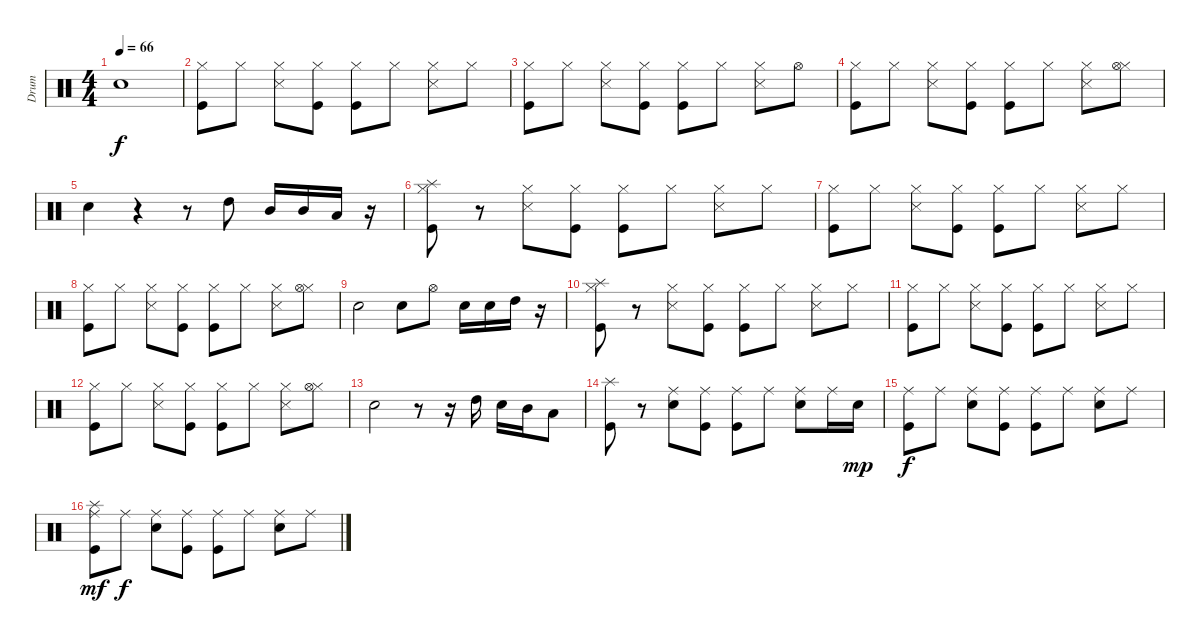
\track ("Drum" "Drum") {instrument percussion}
\staff {score}
\articulation defaults
\ts (4 4)
\tempo 66
\clef neutral
\ks c "Snare (hit) 2".1{dy f}
|
("Hi-Hat (closed)" "Kick (hit)").8 "Hi-Hat (closed)".8 ("Hi-Hat (closed)" "Snare (side stick) 3").8 ("Hi-Hat (closed)" "Kick (hit)").8 ("Hi-Hat (closed)" "Kick (hit)").8 "Hi-Hat (closed)".8 ("Hi-Hat (closed)" "Snare (side stick) 3").8 "Hi-Hat (closed)".8 |
("Hi-Hat (closed)" "Kick (hit)").8 "Hi-Hat (closed)".8 ("Hi-Hat (closed)" "Snare (side stick) 3").8 ("Hi-Hat (closed)" "Kick (hit)").8 ("Hi-Hat (closed)" "Kick (hit)").8 "Hi-Hat (closed)".8 ("Hi-Hat (closed)" "Snare (side stick) 3").8 "Hi-Hat (open)".8 |
("Hi-Hat (closed)" "Kick (hit)").8 "Hi-Hat (closed)".8 ("Hi-Hat (closed)" "Snare (side stick) 3").8 ("Hi-Hat (closed)" "Kick (hit)").8 ("Hi-Hat (closed)" "Kick (hit)").8 "Hi-Hat (closed)".8 ("Hi-Hat (closed)" "Snare (side stick) 3").8 ("Hi-Hat (closed)" "Hi-Hat (open)").8 |
"Snare (hit) 2".4 r.4 r.8 "High Tom (hit)".8 "Mid Tom (hit)".16 "Mid Tom (hit)".16 "Low Tom (hit)".16 r.16 |
("Hi-Hat (closed)" "Splash (hit)" "Kick (hit)").8 r.8 ("Hi-Hat (closed)" "Snare (side stick) 3").8 ("Hi-Hat (closed)" "Kick (hit)").8 ("Hi-Hat (closed)" "Kick (hit)").8 "Hi-Hat (closed)".8 ("Hi-Hat (closed)" "Snare (side stick) 3").8 "Hi-Hat (closed)".8 |
("Hi-Hat (closed)" "Kick (hit)").8 "Hi-Hat (closed)".8 ("Hi-Hat (closed)" "Snare (side stick) 3").8 ("Hi-Hat (closed)" "Kick (hit)").8 ("Hi-Hat (closed)" "Kick (hit)").8 "Hi-Hat (closed)".8 ("Hi-Hat (closed)" "Snare (side stick) 3").8 "Hi-Hat (closed)".8 |
("Hi-Hat (closed)" "Kick (hit)").8 "Hi-Hat (closed)".8 ("Hi-Hat (closed)" "Snare (side stick) 3").8 ("Hi-Hat (closed)" "Kick (hit)").8 ("Hi-Hat (closed)" "Kick (hit)").8 "Hi-Hat (closed)".8 ("Hi-Hat (closed)" "Snare (side stick) 3").8 ("Hi-Hat (closed)" "Hi-Hat (open)").8 |
"Snare (hit) 2".2 "Snare (hit) 2".8 "Hi-Hat (open)".8 "Snare (hit) 2".16 "Snare (hit) 2".16 "High Tom (hit)".16 r.16 |
("Hi-Hat (closed)" "Splash (hit)" "Kick (hit)").8 r.8 ("Hi-Hat (closed)" "Snare (side stick) 3").8 ("Hi-Hat (closed)" "Kick (hit)").8 ("Hi-Hat (closed)" "Kick (hit)").8 "Hi-Hat (closed)".8 ("Hi-Hat (closed)" "Snare (side stick) 3").8 "Hi-Hat (closed)".8 |
("Hi-Hat (closed)" "Kick (hit)").8 "Hi-Hat (closed)".8 ("Hi-Hat (closed)" "Snare (side stick) 3").8 ("Hi-Hat (closed)" "Kick (hit)").8 ("Hi-Hat (closed)" "Kick (hit)").8 "Hi-Hat (closed)".8 ("Hi-Hat (closed)" "Snare (side stick) 3").8 "Hi-Hat (closed)".8 |
("Hi-Hat (closed)" "Kick (hit)").8{txt ""} "Hi-Hat (closed)".8 ("Hi-Hat (closed)" "Snare (side stick) 3").8 ("Hi-Hat (closed)" "Kick (hit)").8 ("Hi-Hat (closed)" "Kick (hit)").8 "Hi-Hat (closed)".8 ("Hi-Hat (closed)" "Snare (side stick) 3").8 ("Hi-Hat (closed)" "Hi-Hat (open)").8 |
"Snare (hit) 2".2 r.8 r.16 "High Tom (hit)".16 "Snare (hit) 2".16 "Mid Tom (hit)".16 "Low Tom (hit)".8 |
("Splash (hit)" "Kick (hit)").8 r.8 ("Ride (middle)" "Snare (hit) 2").8 ("Ride (middle)" "Kick (hit)").8 ("Ride (middle)" "Kick (hit)").8 "Ride (middle)".8 ("Ride (middle)" "Snare (hit) 2").8 "Ride (middle)".16 "Snare (hit) 2".16{dy mp} |
("Ride (middle)" "Kick (hit)").8{dy f} "Ride (middle)".8 ("Ride (middle)" "Snare (hit) 2").8 ("Ride (middle)" "Kick (hit)").8 ("Ride (middle)" "Kick (hit)").8 "Ride (middle)".8 ("Ride (middle)" "Snare (hit) 2").8 "Ride (middle)".8 |
("Ride (middle)" "Splash (hit)" "Kick (hit)").8{dy mf} "Ride (middle)".8{dy f} ("Ride (middle)" "Snare (hit) 2").8 ("Ride (middle)" "Kick (hit)").8 ("Ride (middle)" "Kick (hit)").8 "Ride (middle)".8 ("Ride (middle)" "Snare (hit) 2").8 "Ride (middle)".8
